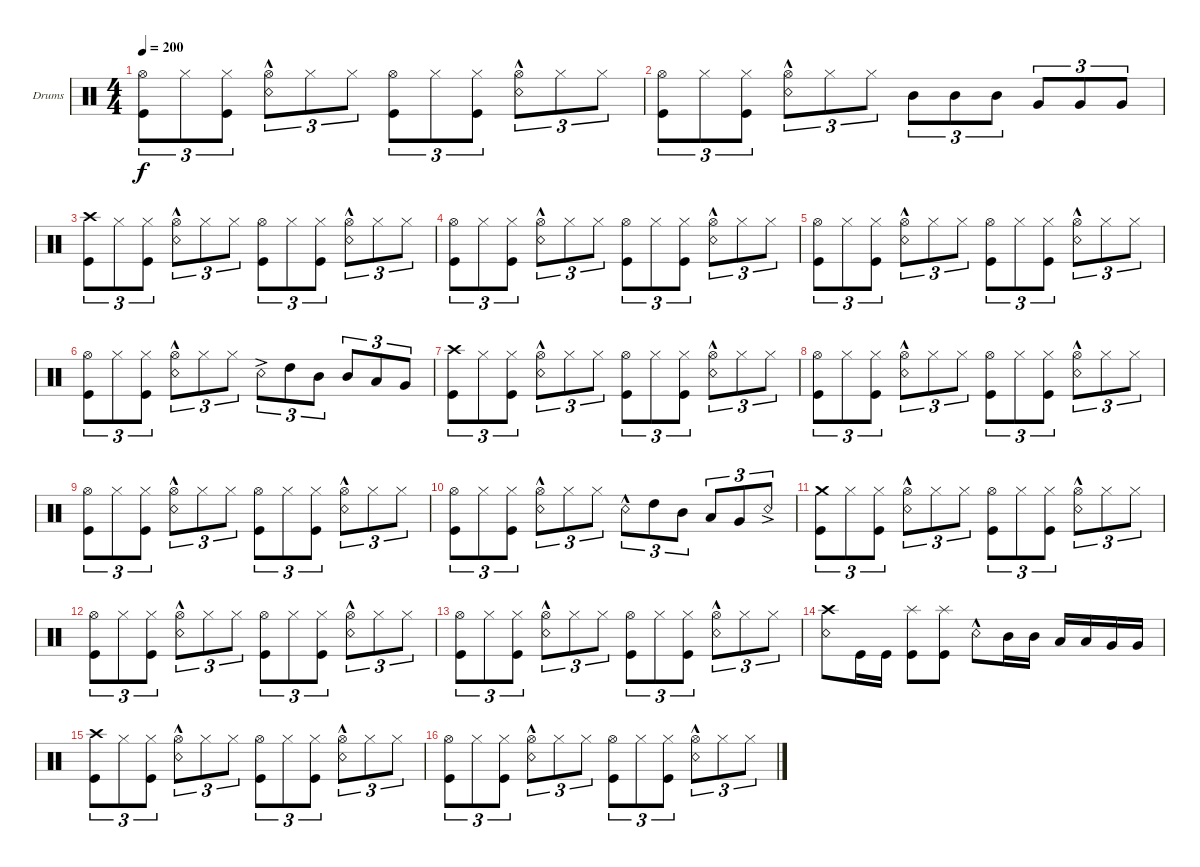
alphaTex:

\bracketExtendMode groupsimilarinstruments
\firstSystemTrackNameOrientation horizontal
\otherSystemsTrackNameOrientation horizontal
\track ("Drumkit" "Drums") {instrument percussion}
\staff {score}
\articulation defaults
\ts (4 4)
\tempo 200
\clef neutral
\ks c
("Kick (hit)" "Hi-Hat (open)").8{tu (3 2) dy f} "Hi-Hat (closed)".8{tu (3 2)} ("Kick (hit)" "Hi-Hat (closed)").8{tu (3 2)} ("Snare (rim shot)"{hac} "Hi-Hat (open)").8{tu (3 2)} "Hi-Hat (closed)".8{tu (3 2)} "Hi-Hat (closed)".8{tu (3 2)} ("Kick (hit)" "Hi-Hat (open)").8{tu (3 2)} "Hi-Hat (closed)".8{tu (3 2)} ("Kick (hit)" "Hi-Hat (closed)").8{tu (3 2)} ("Snare (rim shot)"{hac} "Hi-Hat (open)").8{tu (3 2)} "Hi-Hat (closed)".8{tu (3 2)} "Hi-Hat (closed)".8{tu (3 2)} |
("Kick (hit)" "Hi-Hat (open)").8{tu (3 2)} "Hi-Hat (closed)".8{tu (3 2)} ("Kick (hit)" "Hi-Hat (closed)").8{tu (3 2)} ("Snare (rim shot)"{hac} "Hi-Hat (open)").8{tu (3 2)} "Hi-Hat (closed)".8{tu (3 2)} "Hi-Hat (closed)".8{tu (3 2)} "Mid Tom (hit)".8{tu (3 2)} "Mid Tom (hit)".8{tu (3 2)} "Mid Tom (hit)".8{tu (3 2)} "Very Low Tom (hit)".8{tu (3 2)} "Very Low Tom (hit)".8{tu (3 2)} "Very Low Tom (hit)".8{tu (3 2)} |
("Kick (hit)" "Crash high (hit)").8{tu (3 2)} "Hi-Hat (closed)".8{tu (3 2)} ("Kick (hit)" "Hi-Hat (closed)").8{tu (3 2)} ("Snare (rim shot)"{hac} "Hi-Hat (open)").8{tu (3 2)} "Hi-Hat (closed)".8{tu (3 2)} "Hi-Hat (closed)".8{tu (3 2)} ("Kick (hit)" "Hi-Hat (open)").8{tu (3 2)} "Hi-Hat (closed)".8{tu (3 2)} ("Kick (hit)" "Hi-Hat (closed)").8{tu (3 2)} ("Snare (rim shot)"{hac} "Hi-Hat (open)").8{tu (3 2)} "Hi-Hat (closed)".8{tu (3 2)} "Hi-Hat (closed)".8{tu (3 2)} |
("Kick (hit)" "Hi-Hat (open)").8{tu (3 2)} "Hi-Hat (closed)".8{tu (3 2)} ("Kick (hit)" "Hi-Hat (closed)").8{tu (3 2)} ("Snare (rim shot)"{hac} "Hi-Hat (open)").8{tu (3 2)} "Hi-Hat (closed)".8{tu (3 2)} "Hi-Hat (closed)".8{tu (3 2)} ("Kick (hit)" "Hi-Hat (open)").8{tu (3 2)} "Hi-Hat (closed)".8{tu (3 2)} ("Kick (hit)" "Hi-Hat (closed)").8{tu (3 2)} ("Snare (rim shot)"{hac} "Hi-Hat (open)").8{tu (3 2)} "Hi-Hat (closed)".8{tu (3 2)} "Hi-Hat (closed)".8{tu (3 2)} |
("Kick (hit)" "Hi-Hat (open)").8{tu (3 2)} "Hi-Hat (closed)".8{tu (3 2)} ("Kick (hit)" "Hi-Hat (closed)").8{tu (3 2)} ("Snare (rim shot)"{hac} "Hi-Hat (open)").8{tu (3 2)} "Hi-Hat (closed)".8{tu (3 2)} "Hi-Hat (closed)".8{tu (3 2)} ("Kick (hit)" "Hi-Hat (open)").8{tu (3 2)} "Hi-Hat (closed)".8{tu (3 2)} ("Kick (hit)" "Hi-Hat (closed)").8{tu (3 2)} ("Snare (rim shot)"{hac} "Hi-Hat (open)").8{tu (3 2)} "Hi-Hat (closed)".8{tu (3 2)} "Hi-Hat (closed)".8{tu (3 2)} |
("Kick (hit)" "Hi-Hat (open)").8{tu (3 2)} "Hi-Hat (closed)".8{tu (3 2)} ("Kick (hit)" "Hi-Hat (closed)").8{tu (3 2)} ("Snare (rim shot)"{hac} "Hi-Hat (open)").8{tu (3 2)} "Hi-Hat (closed)".8{tu (3 2)} "Hi-Hat (closed)".8{tu (3 2)} "Snare (rim shot)"{ac}.8{tu (3 2)} "High Tom (hit)".8{tu (3 2)} "Mid Tom (hit)".8{tu (3 2)} "Mid Tom (hit)".8{tu (3 2)} "Low Tom (hit)".8{tu (3 2)} "Very Low Tom (hit)".8{tu (3 2)} |
("Kick (hit)" "Crash high (hit)").8{tu (3 2)} "Hi-Hat (closed)".8{tu (3 2)} ("Kick (hit)" "Hi-Hat (closed)").8{tu (3 2)} ("Snare (rim shot)"{hac} "Hi-Hat (open)").8{tu (3 2)} "Hi-Hat (closed)".8{tu (3 2)} "Hi-Hat (closed)".8{tu (3 2)} ("Kick (hit)" "Hi-Hat (open)").8{tu (3 2)} "Hi-Hat (closed)".8{tu (3 2)} ("Kick (hit)" "Hi-Hat (closed)").8{tu (3 2)} ("Snare (rim shot)"{hac} "Hi-Hat (open)").8{tu (3 2)} "Hi-Hat (closed)".8{tu (3 2)} "Hi-Hat (closed)".8{tu (3 2)} |
("Kick (hit)" "Hi-Hat (open)").8{tu (3 2)} "Hi-Hat (closed)".8{tu (3 2)} ("Kick (hit)" "Hi-Hat (closed)").8{tu (3 2)} ("Snare (rim shot)"{hac} "Hi-Hat (open)").8{tu (3 2)} "Hi-Hat (closed)".8{tu (3 2)} "Hi-Hat (closed)".8{tu (3 2)} ("Kick (hit)" "Hi-Hat (open)").8{tu (3 2)} "Hi-Hat (closed)".8{tu (3 2)} ("Kick (hit)" "Hi-Hat (closed)").8{tu (3 2)} ("Snare (rim shot)"{hac} "Hi-Hat (open)").8{tu (3 2)} "Hi-Hat (closed)".8{tu (3 2)} "Hi-Hat (closed)".8{tu (3 2)} |
("Kick (hit)" "Hi-Hat (open)").8{tu (3 2)} "Hi-Hat (closed)".8{tu (3 2)} ("Kick (hit)" "Hi-Hat (closed)").8{tu (3 2)} ("Snare (rim shot)"{hac} "Hi-Hat (open)").8{tu (3 2)} "Hi-Hat (closed)".8{tu (3 2)} "Hi-Hat (closed)".8{tu (3 2)} ("Kick (hit)" "Hi-Hat (open)").8{tu (3 2)} "Hi-Hat (closed)".8{tu (3 2)} ("Kick (hit)" "Hi-Hat (closed)").8{tu (3 2)} ("Snare (rim shot)"{hac} "Hi-Hat (open)").8{tu (3 2)} "Hi-Hat (closed)".8{tu (3 2)} "Hi-Hat (closed)".8{tu (3 2)} |
("Kick (hit)" "Hi-Hat (open)").8{tu (3 2)} "Hi-Hat (closed)".8{tu (3 2)} ("Kick (hit)" "Hi-Hat (closed)").8{tu (3 2)} ("Snare (rim shot)"{hac} "Hi-Hat (open)").8{tu (3 2)} "Hi-Hat (closed)".8{tu (3 2)} "Hi-Hat (closed)".8{tu (3 2)} "Snare (rim shot)"{hac}.8{tu (3 2)} "High Tom (hit)".8{tu (3 2)} "Mid Tom (hit)".8{tu (3 2)} "Low Tom (hit)".8{tu (3 2)} "Very Low Tom (hit)".8{tu (3 2)} "Snare (rim shot)"{ac}.8{tu (3 2)} |
("Kick (hit)" "Crash medium (hit)").8{tu (3 2)} "Hi-Hat (closed)".8{tu (3 2)} ("Kick (hit)" "Hi-Hat (closed)").8{tu (3 2)} ("Snare (rim shot)"{hac} "Hi-Hat (open)").8{tu (3 2)} "Hi-Hat (closed)".8{tu (3 2)} "Hi-Hat (closed)".8{tu (3 2)} ("Kick (hit)" "Hi-Hat (open)").8{tu (3 2)} "Hi-Hat (closed)".8{tu (3 2)} ("Kick (hit)" "Hi-Hat (closed)").8{tu (3 2)} ("Snare (rim shot)"{hac} "Hi-Hat (open)").8{tu (3 2)} "Hi-Hat (closed)".8{tu (3 2)} "Hi-Hat (closed)".8{tu (3 2)} |
("Kick (hit)" "Hi-Hat (open)").8{tu (3 2)} "Hi-Hat (closed)".8{tu (3 2)} ("Kick (hit)" "Hi-Hat (closed)").8{tu (3 2)} ("Snare (rim shot)"{hac} "Hi-Hat (open)").8{tu (3 2)} "Hi-Hat (closed)".8{tu (3 2)} "Hi-Hat (closed)".8{tu (3 2)} ("Kick (hit)" "Hi-Hat (open)").8{tu (3 2)} "Hi-Hat (closed)".8{tu (3 2)} ("Kick (hit)" "Hi-Hat (closed)").8{tu (3 2)} ("Snare (rim shot)"{hac} "Hi-Hat (open)").8{tu (3 2)} "Hi-Hat (closed)".8{tu (3 2)} "Hi-Hat (closed)".8{tu (3 2)} |
("Kick (hit)" "Hi-Hat (open)").8{tu (3 2)} "Hi-Hat (closed)".8{tu (3 2)} ("Kick (hit)" "Hi-Hat (closed)").8{tu (3 2)} ("Snare (rim shot)"{hac} "Hi-Hat (open)").8{tu (3 2)} "Hi-Hat (closed)".8{tu (3 2)} "Hi-Hat (closed)".8{tu (3 2)} ("Kick (hit)" "Hi-Hat (open)").8{tu (3 2)} "Hi-Hat (closed)".8{tu (3 2)} ("Kick (hit)" "Hi-Hat (closed)").8{tu (3 2)} ("Snare (rim shot)"{hac} "Hi-Hat (open)").8{tu (3 2)} "Hi-Hat (closed)".8{tu (3 2)} "Hi-Hat (closed)".8{tu (3 2)} |
("Snare (rim shot)" "Crash high (hit)").8 "Kick (hit)".16 "Kick (hit)".16 ("Kick (hit)" "Splash (hit)").8 ("Kick (hit)" "Splash (hit)").8 "Snare (rim shot)"{hac}.8 "Mid Tom (hit)".16 "Mid Tom (hit)".16 "Low Tom (hit)".16 "Low Tom (hit)".16 "Very Low Tom (hit)".16 "Very Low Tom (hit)".16 |
("Kick (hit)" "Crash high (hit)").8{tu (3 2)} "Hi-Hat (closed)".8{tu (3 2)} ("Kick (hit)" "Hi-Hat (closed)").8{tu (3 2)} ("Snare (rim shot)"{hac} "Hi-Hat (open)").8{tu (3 2)} "Hi-Hat (closed)".8{tu (3 2)} "Hi-Hat (closed)".8{tu (3 2)} ("Kick (hit)" "Hi-Hat (open)").8{tu (3 2)} "Hi-Hat (closed)".8{tu (3 2)} ("Kick (hit)" "Hi-Hat (closed)").8{tu (3 2)} ("Snare (rim shot)"{hac} "Hi-Hat (open)").8{tu (3 2)} "Hi-Hat (closed)".8{tu (3 2)} "Hi-Hat (closed)".8{tu (3 2)} |
("Kick (hit)" "Hi-Hat (open)").8{tu (3 2)} "Hi-Hat (closed)".8{tu (3 2)} ("Kick (hit)" "Hi-Hat (closed)").8{tu (3 2)} ("Snare (rim shot)"{hac} "Hi-Hat (open)").8{tu (3 2)} "Hi-Hat (closed)".8{tu (3 2)} "Hi-Hat (closed)".8{tu (3 2)} ("Kick (hit)" "Hi-Hat (open)").8{tu (3 2)} "Hi-Hat (closed)".8{tu (3 2)} ("Kick (hit)" "Hi-Hat (closed)").8{tu (3 2)} ("Snare (rim shot)"{hac} "Hi-Hat (open)").8{tu (3 2)} "Hi-Hat (closed)".8{tu (3 2)} "Hi-Hat (closed)".8{tu (3 2)}
